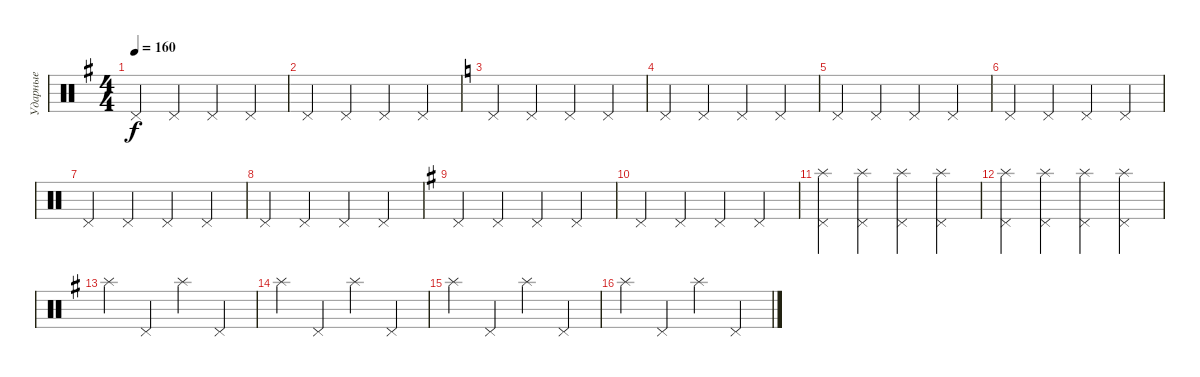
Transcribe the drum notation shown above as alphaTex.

\track ("Ударные" "Ударные") {instrument percussion}
\staff {score}
\articulation defaults
\ts (4 4)
\tempo 160
\clef neutral
\ks g "Pedal Hi-Hat (hit)".4{dy f} "Pedal Hi-Hat (hit)".4 "Pedal Hi-Hat (hit)".4 "Pedal Hi-Hat (hit)".4
|
"Pedal Hi-Hat (hit)".4 "Pedal Hi-Hat (hit)".4 "Pedal Hi-Hat (hit)".4 "Pedal Hi-Hat (hit)".4 |
\ks c "Pedal Hi-Hat (hit)".4 "Pedal Hi-Hat (hit)".4 "Pedal Hi-Hat (hit)".4 "Pedal Hi-Hat (hit)".4
|
"Pedal Hi-Hat (hit)".4 "Pedal Hi-Hat (hit)".4 "Pedal Hi-Hat (hit)".4 "Pedal Hi-Hat (hit)".4 |
"Pedal Hi-Hat (hit)".4 "Pedal Hi-Hat (hit)".4 "Pedal Hi-Hat (hit)".4 "Pedal Hi-Hat (hit)".4 |
"Pedal Hi-Hat (hit)".4 "Pedal Hi-Hat (hit)".4 "Pedal Hi-Hat (hit)".4 "Pedal Hi-Hat (hit)".4 |
"Pedal Hi-Hat (hit)".4 "Pedal Hi-Hat (hit)".4 "Pedal Hi-Hat (hit)".4 "Pedal Hi-Hat (hit)".4 |
"Pedal Hi-Hat (hit)".4 "Pedal Hi-Hat (hit)".4 "Pedal Hi-Hat (hit)".4 "Pedal Hi-Hat (hit)".4 |
\ks g "Pedal Hi-Hat (hit)".4 "Pedal Hi-Hat (hit)".4 "Pedal Hi-Hat (hit)".4 "Pedal Hi-Hat (hit)".4
|
"Pedal Hi-Hat (hit)".4 "Pedal Hi-Hat (hit)".4 "Pedal Hi-Hat (hit)".4 "Pedal Hi-Hat (hit)".4 |
("Pedal Hi-Hat (hit)" "Splash (hit)").4 ("Pedal Hi-Hat (hit)" "Splash (hit)").4 ("Pedal Hi-Hat (hit)" "Splash (hit)").4 ("Pedal Hi-Hat (hit)" "Splash (hit)").4 |
("Pedal Hi-Hat (hit)" "Splash (hit)").4 ("Pedal Hi-Hat (hit)" "Splash (hit)").4 ("Pedal Hi-Hat (hit)" "Splash (hit)").4 ("Pedal Hi-Hat (hit)" "Splash (hit)").4 |
"Splash (hit)".4 "Pedal Hi-Hat (hit)".4 "Splash (hit)".4 "Pedal Hi-Hat (hit)".4 |
"Splash (hit)".4 "Pedal Hi-Hat (hit)".4 "Splash (hit)".4 "Pedal Hi-Hat (hit)".4 |
"Splash (hit)".4 "Pedal Hi-Hat (hit)".4 "Splash (hit)".4 "Pedal Hi-Hat (hit)".4 |
"Splash (hit)".4 "Pedal Hi-Hat (hit)".4 "Splash (hit)".4 "Pedal Hi-Hat (hit)".4
